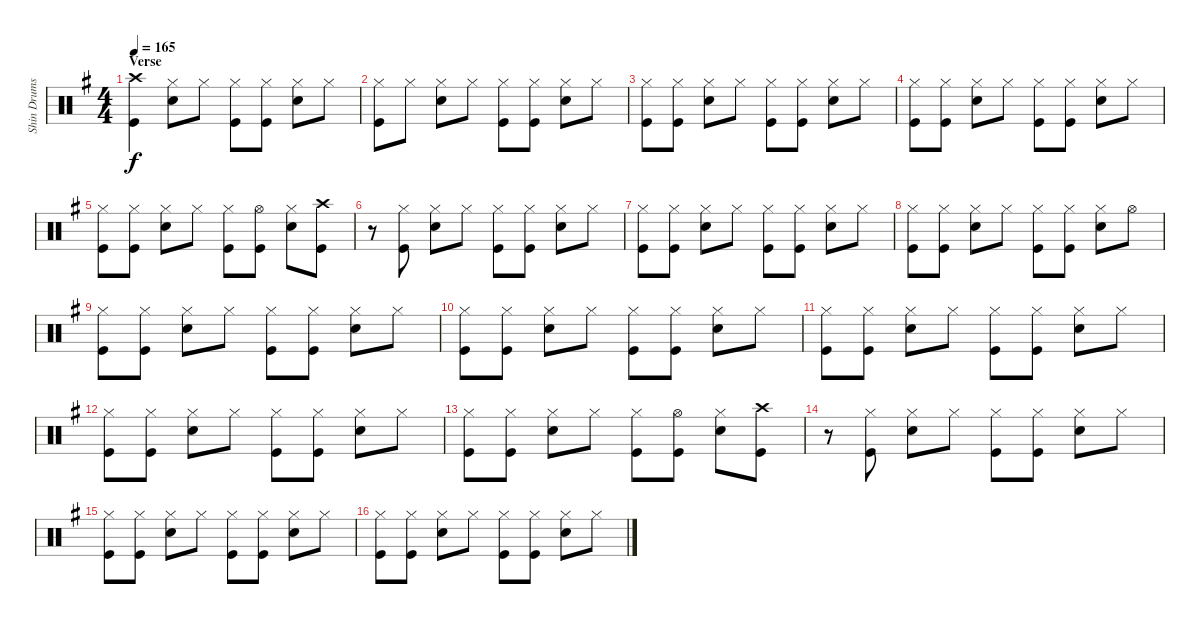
\track ("Shin Drums" "Shin Drums") {instrument percussion}
\staff {score}
\articulation defaults
\ts (4 4)
\section ("" "Verse")
\tempo 165
\clef neutral
\ks g
("Crash high (hit)" "Kick (hit)").4{dy f} ("Hi-Hat (closed)" "Snare (hit) 2").8 "Hi-Hat (closed)".8 ("Hi-Hat (closed)" "Kick (hit)").8 ("Hi-Hat (closed)" "Kick (hit)").8 ("Hi-Hat (closed)" "Snare (hit) 2").8 "Hi-Hat (closed)".8 |
\ks g
("Hi-Hat (closed)" "Kick (hit)").8 "Hi-Hat (closed)".8 ("Hi-Hat (closed)" "Snare (hit) 2").8 "Hi-Hat (closed)".8 ("Hi-Hat (closed)" "Kick (hit)").8 ("Hi-Hat (closed)" "Kick (hit)").8 ("Hi-Hat (closed)" "Snare (hit) 2").8 "Hi-Hat (closed)".8 |
("Hi-Hat (closed)" "Kick (hit)").8 ("Hi-Hat (closed)" "Kick (hit)").8 ("Hi-Hat (closed)" "Snare (hit) 2").8 "Hi-Hat (closed)".8 ("Hi-Hat (closed)" "Kick (hit)").8 ("Hi-Hat (closed)" "Kick (hit)").8 ("Hi-Hat (closed)" "Snare (hit) 2").8 "Hi-Hat (closed)".8 |
("Hi-Hat (closed)" "Kick (hit)").8 ("Hi-Hat (closed)" "Kick (hit)").8 ("Hi-Hat (closed)" "Snare (hit) 2").8 "Hi-Hat (closed)".8 ("Hi-Hat (closed)" "Kick (hit)").8 ("Hi-Hat (closed)" "Kick (hit)").8 ("Hi-Hat (closed)" "Snare (hit) 2").8 "Hi-Hat (closed)".8 |
("Hi-Hat (closed)" "Kick (hit)").8 ("Hi-Hat (closed)" "Kick (hit)").8 ("Hi-Hat (closed)" "Snare (hit) 2").8 "Hi-Hat (closed)".8 ("Hi-Hat (closed)" "Kick (hit)").8 ("Hi-Hat (open)" "Kick (hit)").8 ("Hi-Hat (closed)" "Snare (hit) 2").8 ("Crash high (hit)" "Kick (hit)").8 |
r.8 ("Hi-Hat (closed)" "Kick (hit)").8 ("Hi-Hat (closed)" "Snare (hit) 2").8 "Hi-Hat (closed)".8 ("Hi-Hat (closed)" "Kick (hit)").8 ("Hi-Hat (closed)" "Kick (hit)").8 ("Hi-Hat (closed)" "Snare (hit) 2").8 "Hi-Hat (closed)".8 |
("Hi-Hat (closed)" "Kick (hit)").8 ("Hi-Hat (closed)" "Kick (hit)").8 ("Hi-Hat (closed)" "Snare (hit) 2").8 "Hi-Hat (closed)".8 ("Hi-Hat (closed)" "Kick (hit)").8 ("Hi-Hat (closed)" "Kick (hit)").8 ("Hi-Hat (closed)" "Snare (hit) 2").8 "Hi-Hat (closed)".8 |
("Hi-Hat (closed)" "Kick (hit)").8 ("Hi-Hat (closed)" "Kick (hit)").8 ("Hi-Hat (closed)" "Snare (hit) 2").8 "Hi-Hat (closed)".8 ("Hi-Hat (closed)" "Kick (hit)").8 ("Hi-Hat (closed)" "Kick (hit)").8 ("Hi-Hat (closed)" "Snare (hit) 2").8 "Hi-Hat (open)".8 |
\ks g
("Hi-Hat (closed)" "Kick (hit)").8 ("Hi-Hat (closed)" "Kick (hit)").8 ("Hi-Hat (closed)" "Snare (hit) 2").8 "Hi-Hat (closed)".8 ("Hi-Hat (closed)" "Kick (hit)").8 ("Hi-Hat (closed)" "Kick (hit)").8 ("Hi-Hat (closed)" "Snare (hit) 2").8 "Hi-Hat (closed)".8 |
\ks g
("Hi-Hat (closed)" "Kick (hit)").8 ("Hi-Hat (closed)" "Kick (hit)").8 ("Hi-Hat (closed)" "Snare (hit) 2").8 "Hi-Hat (closed)".8 ("Hi-Hat (closed)" "Kick (hit)").8 ("Hi-Hat (closed)" "Kick (hit)").8 ("Hi-Hat (closed)" "Snare (hit) 2").8 "Hi-Hat (closed)".8 |
("Hi-Hat (closed)" "Kick (hit)").8 ("Hi-Hat (closed)" "Kick (hit)").8 ("Hi-Hat (closed)" "Snare (hit) 2").8 "Hi-Hat (closed)".8 ("Hi-Hat (closed)" "Kick (hit)").8 ("Hi-Hat (closed)" "Kick (hit)").8 ("Hi-Hat (closed)" "Snare (hit) 2").8 "Hi-Hat (closed)".8 |
("Hi-Hat (closed)" "Kick (hit)").8 ("Hi-Hat (closed)" "Kick (hit)").8 ("Hi-Hat (closed)" "Snare (hit) 2").8 "Hi-Hat (closed)".8 ("Hi-Hat (closed)" "Kick (hit)").8 ("Hi-Hat (closed)" "Kick (hit)").8 ("Hi-Hat (closed)" "Snare (hit) 2").8 "Hi-Hat (closed)".8 |
("Hi-Hat (closed)" "Kick (hit)").8 ("Hi-Hat (closed)" "Kick (hit)").8 ("Hi-Hat (closed)" "Snare (hit) 2").8 "Hi-Hat (closed)".8 ("Hi-Hat (closed)" "Kick (hit)").8 ("Hi-Hat (open)" "Kick (hit)").8 ("Hi-Hat (closed)" "Snare (hit) 2").8 ("Crash high (hit)" "Kick (hit)").8 |
r.8 ("Hi-Hat (closed)" "Kick (hit)").8 ("Hi-Hat (closed)" "Snare (hit) 2").8 "Hi-Hat (closed)".8 ("Hi-Hat (closed)" "Kick (hit)").8 ("Hi-Hat (closed)" "Kick (hit)").8 ("Hi-Hat (closed)" "Snare (hit) 2").8 "Hi-Hat (closed)".8 |
("Hi-Hat (closed)" "Kick (hit)").8 ("Hi-Hat (closed)" "Kick (hit)").8 ("Hi-Hat (closed)" "Snare (hit) 2").8 "Hi-Hat (closed)".8 ("Hi-Hat (closed)" "Kick (hit)").8 ("Hi-Hat (closed)" "Kick (hit)").8 ("Hi-Hat (closed)" "Snare (hit) 2").8 "Hi-Hat (closed)".8 |
("Hi-Hat (closed)" "Kick (hit)").8 ("Hi-Hat (closed)" "Kick (hit)").8 ("Hi-Hat (closed)" "Snare (hit) 2").8 "Hi-Hat (closed)".8 ("Hi-Hat (closed)" "Kick (hit)").8 ("Hi-Hat (closed)" "Kick (hit)").8 ("Hi-Hat (closed)" "Snare (hit) 2").8 "Hi-Hat (closed)".8
